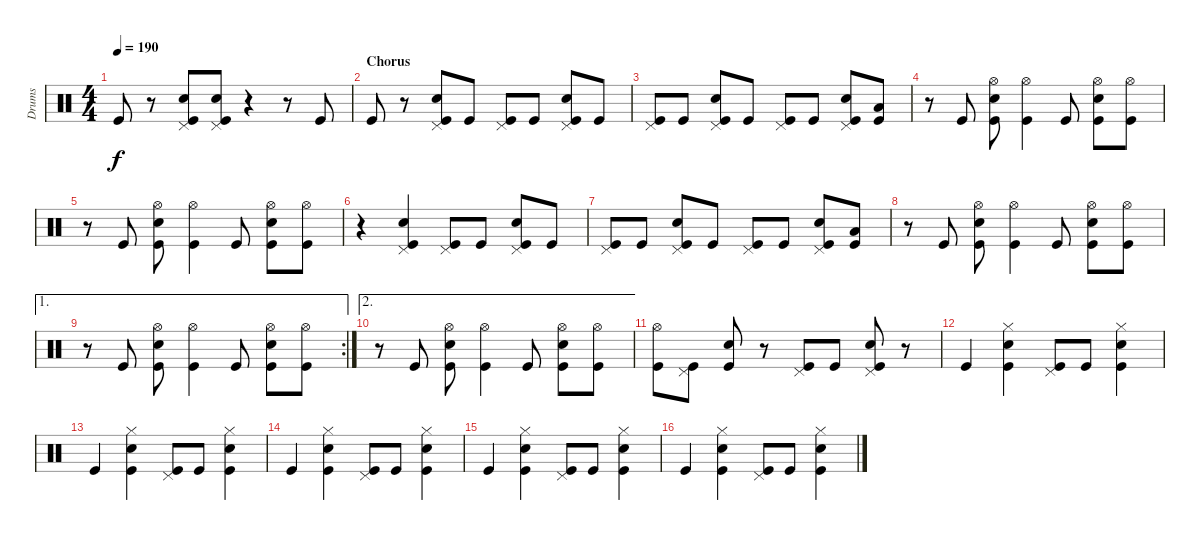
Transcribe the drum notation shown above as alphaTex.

\track ("Drums" "Drums") {instrument percussion}
\staff {score}
\articulation defaults
\ts (4 4)
\tempo 190
\clef neutral
\ks c "Kick (hit)".8{dy f}
r.8 ("Snare (hit) 2" "Kick (hit)" "Pedal Hi-Hat (hit)").8 ("Snare (hit) 2" "Kick (hit)" "Pedal Hi-Hat (hit)").8 r.4 r.8 "Kick (hit)".8 |
\section ("" "Chorus")
"Kick (hit)".8 r.8 ("Snare (hit) 2" "Kick (hit)" "Pedal Hi-Hat (hit)").8 "Kick (hit)".8 ("Kick (hit)" "Pedal Hi-Hat (hit)").8 "Kick (hit)".8 ("Snare (hit) 2" "Kick (hit)" "Pedal Hi-Hat (hit)").8 "Kick (hit)".8 |
("Kick (hit)" "Pedal Hi-Hat (hit)").8 "Kick (hit)".8 ("Snare (hit) 2" "Kick (hit)" "Pedal Hi-Hat (hit)").8 "Kick (hit)".8 ("Kick (hit)" "Pedal Hi-Hat (hit)").8 "Kick (hit)".8 ("Snare (hit) 2" "Kick (hit)" "Pedal Hi-Hat (hit)").8 ("Low Tom (hit)" "Kick (hit)").8 |
r.8 "Kick (hit)".8 ("Snare (hit) 2" "Kick (hit)" "Hi-Hat (open)").8 ("Kick (hit)" "Hi-Hat (open)").4 "Kick (hit)".8 ("Snare (hit) 2" "Kick (hit)" "Hi-Hat (open)").8 ("Kick (hit)" "Hi-Hat (open)").8 |
r.8 "Kick (hit)".8 ("Snare (hit) 2" "Kick (hit)" "Hi-Hat (open)").8 ("Kick (hit)" "Hi-Hat (open)").4 "Kick (hit)".8 ("Snare (hit) 2" "Kick (hit)" "Hi-Hat (open)").8 ("Kick (hit)" "Hi-Hat (open)").8 |
r.4 ("Snare (hit) 2" "Kick (hit)" "Pedal Hi-Hat (hit)").4 ("Kick (hit)" "Pedal Hi-Hat (hit)").8 "Kick (hit)".8 ("Snare (hit) 2" "Kick (hit)" "Pedal Hi-Hat (hit)").8 "Kick (hit)".8 |
("Kick (hit)" "Pedal Hi-Hat (hit)").8 "Kick (hit)".8 ("Snare (hit) 2" "Kick (hit)" "Pedal Hi-Hat (hit)").8 "Kick (hit)".8 ("Kick (hit)" "Pedal Hi-Hat (hit)").8 "Kick (hit)".8 ("Snare (hit) 2" "Kick (hit)" "Pedal Hi-Hat (hit)").8 ("Low Tom (hit)" "Kick (hit)").8 |
r.8 "Kick (hit)".8 ("Snare (hit) 2" "Kick (hit)" "Hi-Hat (open)").8 ("Kick (hit)" "Hi-Hat (open)").4 "Kick (hit)".8 ("Snare (hit) 2" "Kick (hit)" "Hi-Hat (open)").8 ("Kick (hit)" "Hi-Hat (open)").8 |
\ae 1
\rc 2
r.8 "Kick (hit)".8 ("Snare (hit) 2" "Kick (hit)" "Hi-Hat (open)").8 ("Kick (hit)" "Hi-Hat (open)").4 "Kick (hit)".8 ("Snare (hit) 2" "Kick (hit)" "Hi-Hat (open)").8 ("Kick (hit)" "Hi-Hat (open)").8 |
\ae 2
r.8 "Kick (hit)".8 ("Snare (hit) 2" "Kick (hit)" "Hi-Hat (open)").8 ("Kick (hit)" "Hi-Hat (open)").4 "Kick (hit)".8 ("Snare (hit) 2" "Kick (hit)" "Hi-Hat (open)").8 ("Kick (hit)" "Hi-Hat (open)").8 |
("Kick (hit)" "Hi-Hat (open)").8 ("Kick (hit)" "Pedal Hi-Hat (hit)").8 ("Snare (hit) 2" "Kick (hit)").8 r.8 ("Kick (hit)" "Pedal Hi-Hat (hit)").8 "Kick (hit)".8 ("Snare (hit) 2" "Kick (hit)" "Pedal Hi-Hat (hit)").8 r.8 |
"Kick (hit)".4 ("Snare (hit) 2" "Kick (hit)" "Hi-Hat (closed)").4 ("Kick (hit)" "Pedal Hi-Hat (hit)").8 "Kick (hit)".8 ("Snare (hit) 2" "Kick (hit)" "Hi-Hat (closed)").4 |
"Kick (hit)".4 ("Snare (hit) 2" "Kick (hit)" "Hi-Hat (closed)").4 ("Kick (hit)" "Pedal Hi-Hat (hit)").8 "Kick (hit)".8 ("Snare (hit) 2" "Kick (hit)" "Hi-Hat (closed)").4 |
"Kick (hit)".4 ("Snare (hit) 2" "Kick (hit)" "Hi-Hat (closed)").4 ("Kick (hit)" "Pedal Hi-Hat (hit)").8 "Kick (hit)".8 ("Snare (hit) 2" "Kick (hit)" "Hi-Hat (closed)").4 |
"Kick (hit)".4 ("Snare (hit) 2" "Kick (hit)" "Hi-Hat (closed)").4 ("Kick (hit)" "Pedal Hi-Hat (hit)").8 "Kick (hit)".8 ("Snare (hit) 2" "Kick (hit)" "Hi-Hat (closed)").4 |
"Kick (hit)".4 ("Snare (hit) 2" "Kick (hit)" "Hi-Hat (closed)").4 ("Kick (hit)" "Pedal Hi-Hat (hit)").8 "Kick (hit)".8 ("Snare (hit) 2" "Kick (hit)" "Hi-Hat (closed)").4
